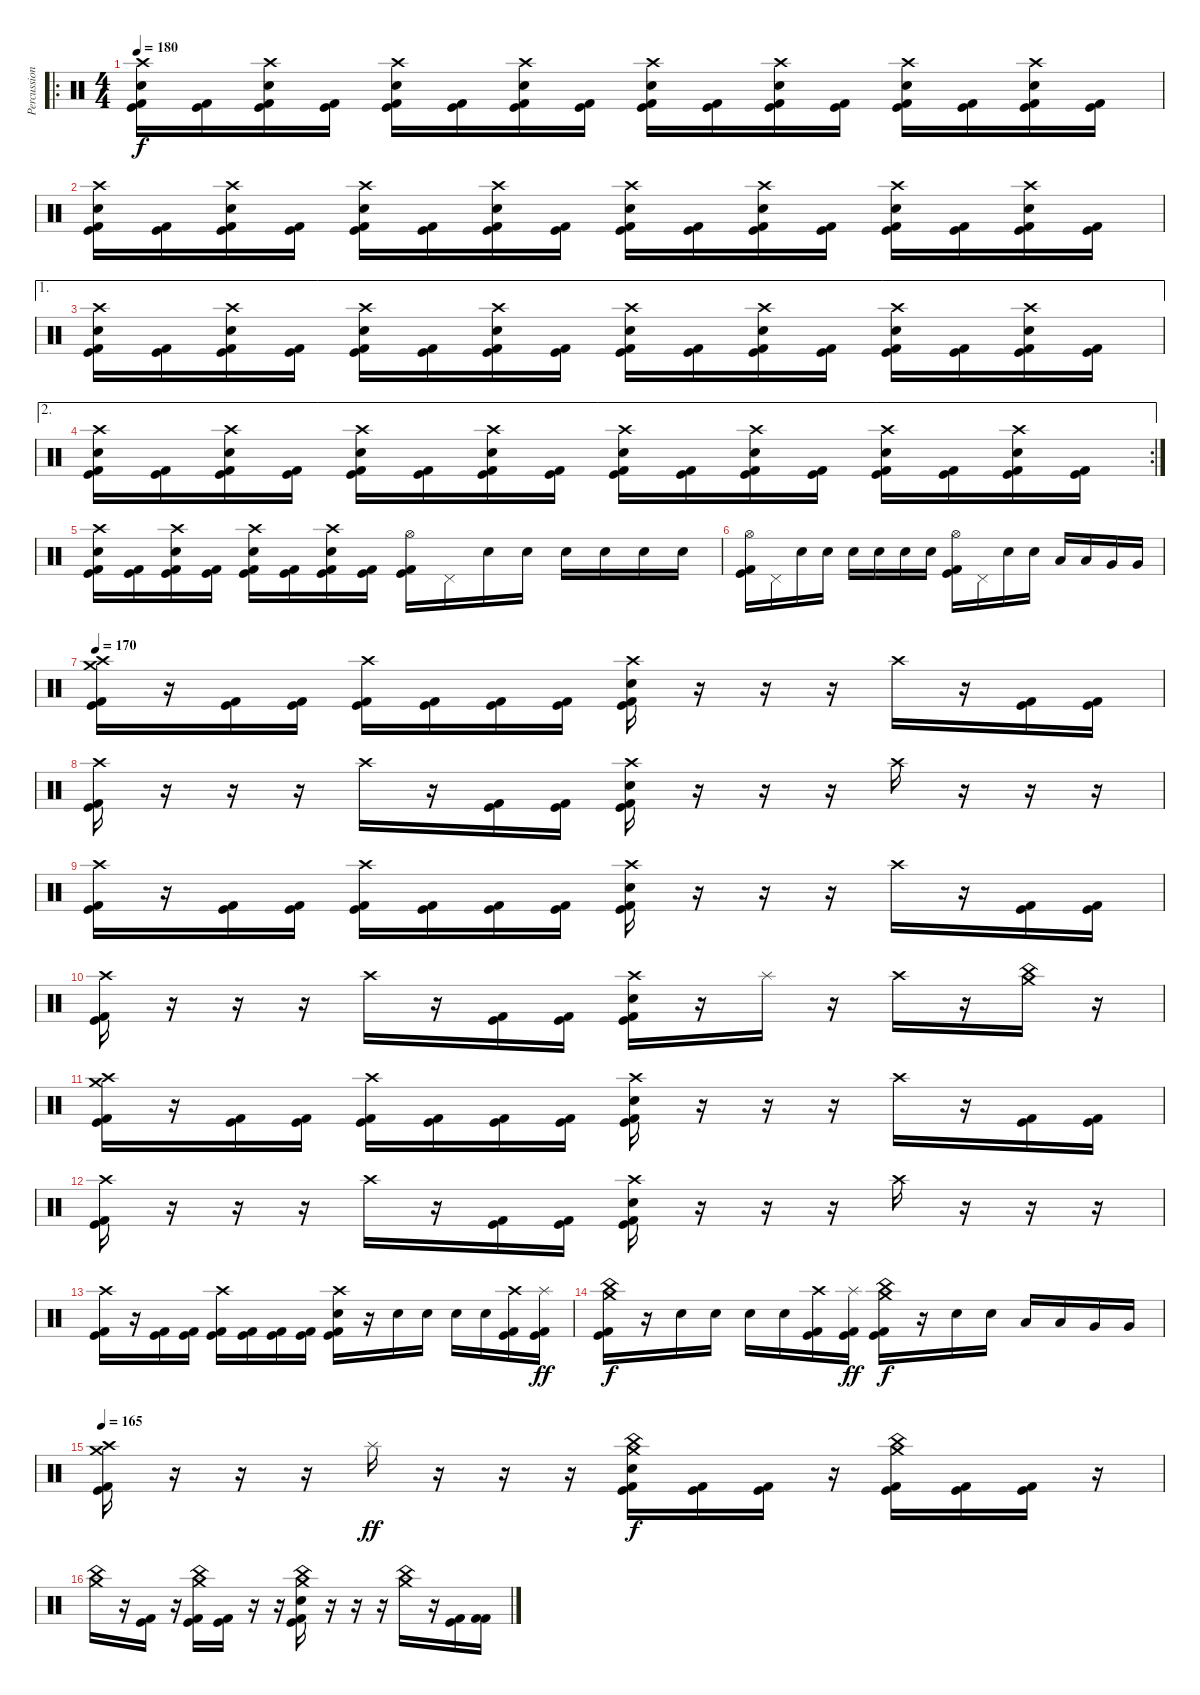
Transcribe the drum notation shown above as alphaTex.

\track ("Percussion" "Percussion") {instrument percussion}
\staff {score}
\articulation defaults
\ro
\ts (4 4)
\tempo 180
\clef neutral
\ks c
("Crash high (hit)" "Electric Snare (hit)" "Kick (hit)" "Kick (hit) 2").16{dy f} ("Kick (hit)" "Kick (hit) 2").16 ("Crash high (hit)" "Electric Snare (hit)" "Kick (hit)" "Kick (hit) 2").16 ("Kick (hit)" "Kick (hit) 2").16 ("Crash high (hit)" "Electric Snare (hit)" "Kick (hit)" "Kick (hit) 2").16 ("Kick (hit)" "Kick (hit) 2").16 ("Crash high (hit)" "Electric Snare (hit)" "Kick (hit)" "Kick (hit) 2").16 ("Kick (hit)" "Kick (hit) 2").16 ("Crash high (hit)" "Electric Snare (hit)" "Kick (hit)" "Kick (hit) 2").16 ("Kick (hit)" "Kick (hit) 2").16 ("Crash high (hit)" "Electric Snare (hit)" "Kick (hit)" "Kick (hit) 2").16 ("Kick (hit)" "Kick (hit) 2").16 ("Crash high (hit)" "Electric Snare (hit)" "Kick (hit)" "Kick (hit) 2").16 ("Kick (hit)" "Kick (hit) 2").16 ("Crash high (hit)" "Electric Snare (hit)" "Kick (hit)" "Kick (hit) 2").16 ("Kick (hit)" "Kick (hit) 2").16 |
("Crash high (hit)" "Electric Snare (hit)" "Kick (hit)" "Kick (hit) 2").16 ("Kick (hit)" "Kick (hit) 2").16 ("Crash high (hit)" "Electric Snare (hit)" "Kick (hit)" "Kick (hit) 2").16 ("Kick (hit)" "Kick (hit) 2").16 ("Crash high (hit)" "Electric Snare (hit)" "Kick (hit)" "Kick (hit) 2").16 ("Kick (hit)" "Kick (hit) 2").16 ("Crash high (hit)" "Electric Snare (hit)" "Kick (hit)" "Kick (hit) 2").16 ("Kick (hit)" "Kick (hit) 2").16 ("Crash high (hit)" "Electric Snare (hit)" "Kick (hit)" "Kick (hit) 2").16 ("Kick (hit)" "Kick (hit) 2").16 ("Crash high (hit)" "Electric Snare (hit)" "Kick (hit)" "Kick (hit) 2").16 ("Kick (hit)" "Kick (hit) 2").16 ("Crash high (hit)" "Electric Snare (hit)" "Kick (hit)" "Kick (hit) 2").16 ("Kick (hit)" "Kick (hit) 2").16 ("Crash high (hit)" "Electric Snare (hit)" "Kick (hit)" "Kick (hit) 2").16 ("Kick (hit)" "Kick (hit) 2").16 |
\ae 1
("Crash high (hit)" "Electric Snare (hit)" "Kick (hit)" "Kick (hit) 2").16 ("Kick (hit)" "Kick (hit) 2").16 ("Crash high (hit)" "Electric Snare (hit)" "Kick (hit)" "Kick (hit) 2").16 ("Kick (hit)" "Kick (hit) 2").16 ("Crash high (hit)" "Electric Snare (hit)" "Kick (hit)" "Kick (hit) 2").16 ("Kick (hit)" "Kick (hit) 2").16 ("Crash high (hit)" "Electric Snare (hit)" "Kick (hit)" "Kick (hit) 2").16 ("Kick (hit)" "Kick (hit) 2").16 ("Crash high (hit)" "Electric Snare (hit)" "Kick (hit)" "Kick (hit) 2").16 ("Kick (hit)" "Kick (hit) 2").16 ("Crash high (hit)" "Electric Snare (hit)" "Kick (hit)" "Kick (hit) 2").16 ("Kick (hit)" "Kick (hit) 2").16 ("Crash high (hit)" "Electric Snare (hit)" "Kick (hit)" "Kick (hit) 2").16 ("Kick (hit)" "Kick (hit) 2").16 ("Crash high (hit)" "Electric Snare (hit)" "Kick (hit)" "Kick (hit) 2").16 ("Kick (hit)" "Kick (hit) 2").16 |
\ae 2
\rc 2
("Crash high (hit)" "Electric Snare (hit)" "Kick (hit)" "Kick (hit) 2").16 ("Kick (hit)" "Kick (hit) 2").16 ("Crash high (hit)" "Electric Snare (hit)" "Kick (hit)" "Kick (hit) 2").16 ("Kick (hit)" "Kick (hit) 2").16 ("Crash high (hit)" "Electric Snare (hit)" "Kick (hit)" "Kick (hit) 2").16 ("Kick (hit)" "Kick (hit) 2").16 ("Crash high (hit)" "Electric Snare (hit)" "Kick (hit)" "Kick (hit) 2").16 ("Kick (hit)" "Kick (hit) 2").16 ("Crash high (hit)" "Electric Snare (hit)" "Kick (hit)" "Kick (hit) 2").16 ("Kick (hit)" "Kick (hit) 2").16 ("Crash high (hit)" "Electric Snare (hit)" "Kick (hit)" "Kick (hit) 2").16 ("Kick (hit)" "Kick (hit) 2").16 ("Crash high (hit)" "Electric Snare (hit)" "Kick (hit)" "Kick (hit) 2").16 ("Kick (hit)" "Kick (hit) 2").16 ("Crash high (hit)" "Electric Snare (hit)" "Kick (hit)" "Kick (hit) 2").16 ("Kick (hit)" "Kick (hit) 2").16 |
("Crash high (hit)" "Electric Snare (hit)" "Kick (hit)" "Kick (hit) 2").16 ("Kick (hit)" "Kick (hit) 2").16 ("Crash high (hit)" "Electric Snare (hit)" "Kick (hit)" "Kick (hit) 2").16 ("Kick (hit)" "Kick (hit) 2").16 ("Crash high (hit)" "Electric Snare (hit)" "Kick (hit)" "Kick (hit) 2").16 ("Kick (hit)" "Kick (hit) 2").16 ("Crash high (hit)" "Electric Snare (hit)" "Kick (hit)" "Kick (hit) 2").16 ("Kick (hit)" "Kick (hit) 2").16 ("Hi-Hat (open)" "Kick (hit)" "Kick (hit) 2").16 "Pedal Hi-Hat (hit)".16 "Electric Snare (hit)".16 "Electric Snare (hit)".16 "Electric Snare (hit)".16 "Electric Snare (hit)".16 "Electric Snare (hit)".16 "Electric Snare (hit)".16 |
("Hi-Hat (open)" "Kick (hit)" "Kick (hit) 2").16 "Pedal Hi-Hat (hit)".16 "Electric Snare (hit)".16 "Electric Snare (hit)".16 "Electric Snare (hit)".16 "Electric Snare (hit)".16 "Electric Snare (hit)".16 "Electric Snare (hit)".16 ("Hi-Hat (open)" "Kick (hit)" "Kick (hit) 2").16 "Pedal Hi-Hat (hit)".16 "Electric Snare (hit)".16 "Electric Snare (hit)".16 "Low Tom (hit)".16 "Low Tom (hit)".16 "Very Low Tom (hit)".16 "Very Low Tom (hit)".16 |
\tempo 170
("Crash medium (hit)" "Crash high (hit)" "Kick (hit)" "Kick (hit) 2").16 r.16 ("Kick (hit)" "Kick (hit) 2").16 ("Kick (hit)" "Kick (hit) 2").16 ("Crash high (hit)" "Kick (hit)" "Kick (hit) 2").16 ("Kick (hit)" "Kick (hit) 2").16 ("Kick (hit)" "Kick (hit) 2").16 ("Kick (hit)" "Kick (hit) 2").16 ("Crash high (hit)" "Electric Snare (hit)" "Kick (hit)" "Kick (hit) 2").16 r.16 r.16 r.16 "Crash high (hit)".16 r.16 ("Kick (hit)" "Kick (hit) 2").16 ("Kick (hit)" "Kick (hit) 2").16 |
("Crash high (hit)" "Kick (hit)" "Kick (hit) 2").16 r.16 r.16 r.16 "Crash high (hit)".16 r.16 ("Kick (hit)" "Kick (hit) 2").16 ("Kick (hit)" "Kick (hit) 2").16 ("Crash high (hit)" "Electric Snare (hit)" "Kick (hit)" "Kick (hit) 2").16 r.16 r.16 r.16 "Crash high (hit)".16 r.16 r.16 r.16 |
("Crash high (hit)" "Kick (hit)" "Kick (hit) 2").16 r.16 ("Kick (hit)" "Kick (hit) 2").16 ("Kick (hit)" "Kick (hit) 2").16 ("Crash high (hit)" "Kick (hit)" "Kick (hit) 2").16 ("Kick (hit)" "Kick (hit) 2").16 ("Kick (hit)" "Kick (hit) 2").16 ("Kick (hit)" "Kick (hit) 2").16 ("Crash high (hit)" "Electric Snare (hit)" "Kick (hit)" "Kick (hit) 2").16 r.16 r.16 r.16 "Crash high (hit)".16 r.16 ("Kick (hit)" "Kick (hit) 2").16 ("Kick (hit)" "Kick (hit) 2").16 |
("Crash high (hit)" "Kick (hit)" "Kick (hit) 2").16 r.16 r.16 r.16 "Crash high (hit)".16 r.16 ("Kick (hit)" "Kick (hit) 2").16 ("Kick (hit)" "Kick (hit) 2").16 ("Crash high (hit)" "Electric Snare (hit)" "Kick (hit)" "Kick (hit) 2").16 r.16 "Splash (hit)".16 r.16 "Crash high (hit)".16 r.16 ("Crash medium (hit)" "China (hit)").16 r.16 |
("Crash medium (hit)" "Crash high (hit)" "Kick (hit)" "Kick (hit) 2").16 r.16 ("Kick (hit)" "Kick (hit) 2").16 ("Kick (hit)" "Kick (hit) 2").16 ("Crash high (hit)" "Kick (hit)" "Kick (hit) 2").16 ("Kick (hit)" "Kick (hit) 2").16 ("Kick (hit)" "Kick (hit) 2").16 ("Kick (hit)" "Kick (hit) 2").16 ("Crash high (hit)" "Electric Snare (hit)" "Kick (hit)" "Kick (hit) 2").16 r.16 r.16 r.16 "Crash high (hit)".16 r.16 ("Kick (hit)" "Kick (hit) 2").16 ("Kick (hit)" "Kick (hit) 2").16 |
("Crash high (hit)" "Kick (hit)" "Kick (hit) 2").16 r.16 r.16 r.16 "Crash high (hit)".16 r.16 ("Kick (hit)" "Kick (hit) 2").16 ("Kick (hit)" "Kick (hit) 2").16 ("Crash high (hit)" "Electric Snare (hit)" "Kick (hit)" "Kick (hit) 2").16 r.16 r.16 r.16 "Crash high (hit)".16 r.16 r.16 r.16 |
("Crash high (hit)" "Kick (hit)" "Kick (hit) 2").16 r.16 ("Kick (hit)" "Kick (hit) 2").16 ("Kick (hit)" "Kick (hit) 2").16 ("Crash high (hit)" "Kick (hit)" "Kick (hit) 2").16 ("Kick (hit)" "Kick (hit) 2").16 ("Kick (hit)" "Kick (hit) 2").16 ("Kick (hit)" "Kick (hit) 2").16 ("Crash high (hit)" "Electric Snare (hit)" "Kick (hit)" "Kick (hit) 2").16 r.16 "Electric Snare (hit)".16 "Electric Snare (hit)".16 "Electric Snare (hit)".16 "Electric Snare (hit)".16 ("Crash high (hit)" "Kick (hit)" "Kick (hit) 2").16 ("Splash (hit)" "Kick (hit)" "Kick (hit) 2").16{dy ff} |
("Crash medium (hit)" "China (hit)" "Kick (hit)" "Kick (hit) 2").16{dy f} r.16 "Electric Snare (hit)".16 "Electric Snare (hit)".16 "Electric Snare (hit)".16 "Electric Snare (hit)".16 ("Crash high (hit)" "Kick (hit)" "Kick (hit) 2").16 ("Splash (hit)" "Kick (hit)" "Kick (hit) 2").16{dy ff} ("Crash medium (hit)" "China (hit)" "Kick (hit)" "Kick (hit) 2").16{dy f} r.16 "Electric Snare (hit)".16 "Electric Snare (hit)".16 "Low Tom (hit)".16 "Low Tom (hit)".16 "Very Low Tom (hit)".16 "Very Low Tom (hit)".16 |
\tempo 165
("Crash medium (hit)" "Crash high (hit)" "Kick (hit)" "Kick (hit) 2").16 r.16 r.16 r.16 "Splash (hit)".16{dy ff} r.16 r.16 r.16 ("Crash medium (hit)" "China (hit)" "Electric Snare (hit)" "Kick (hit)" "Kick (hit) 2").16{dy f} ("Kick (hit)" "Kick (hit) 2").16 ("Kick (hit)" "Kick (hit) 2").16 r.16 ("Crash medium (hit)" "China (hit)" "Kick (hit)" "Kick (hit) 2").16 ("Kick (hit)" "Kick (hit) 2").16 ("Kick (hit)" "Kick (hit) 2").16 r.16 |
("Crash medium (hit)" "China (hit)").16 r.16 ("Kick (hit)" "Kick (hit) 2").16 r.16 ("Crash medium (hit)" "China (hit)" "Kick (hit)" "Kick (hit) 2").16 ("Kick (hit)" "Kick (hit) 2").16 r.16 r.16 ("Crash medium (hit)" "China (hit)" "Electric Snare (hit)" "Kick (hit)" "Kick (hit) 2").16 r.16 r.16 r.16 ("Crash medium (hit)" "China (hit)").16 r.16 ("Kick (hit)" "Kick (hit) 2").16 ("Kick (hit) 2" "Kick (hit) 2").16
